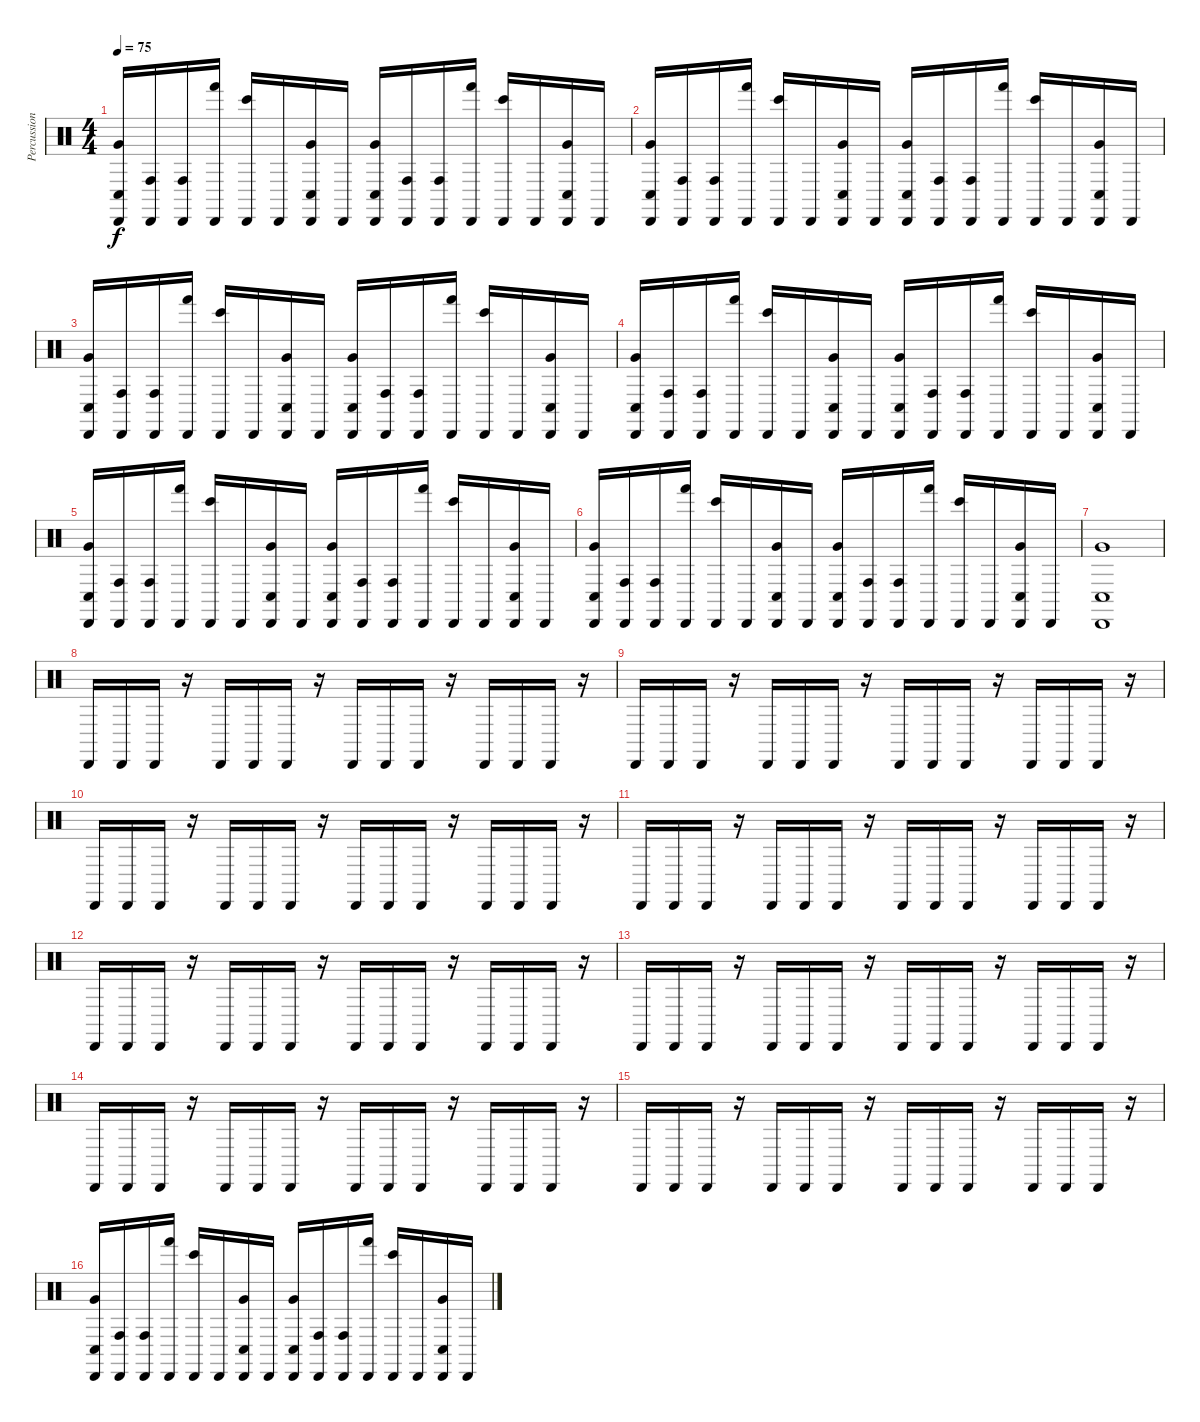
\track ("Percussions" "Percussion") {instrument percussion}
\staff {score}
\articulation defaults
\ts (4 4)
\tempo 75
\clef neutral
\ks c
("Conga low (hit)" "Very Low Tom (hit)" "Cabasa (hit)").16{dy f} ("Conga high (hit)" "Cabasa (hit)").16 ("Conga high (hit)" "Cabasa (hit)").16 ("Hand (hit)" "Cabasa (hit)").16 ("Bongo High (hit)" "Cabasa (hit)").16 "Cabasa (hit)".16 ("Conga low (hit)" "Very Low Tom (hit)" "Cabasa (hit)").16 "Cabasa (hit)".16 ("Conga low (hit)" "Very Low Tom (hit)" "Cabasa (hit)").16 ("Conga high (hit)" "Cabasa (hit)").16 ("Conga high (hit)" "Cabasa (hit)").16 ("Hand (hit)" "Cabasa (hit)").16 ("Bongo High (hit)" "Cabasa (hit)").16 "Cabasa (hit)".16 ("Conga low (hit)" "Very Low Tom (hit)" "Cabasa (hit)").16 "Cabasa (hit)".16 |
("Conga low (hit)" "Very Low Tom (hit)" "Cabasa (hit)").16 ("Conga high (hit)" "Cabasa (hit)").16 ("Conga high (hit)" "Cabasa (hit)").16 ("Hand (hit)" "Cabasa (hit)").16 ("Bongo High (hit)" "Cabasa (hit)").16 "Cabasa (hit)".16 ("Conga low (hit)" "Very Low Tom (hit)" "Cabasa (hit)").16 "Cabasa (hit)".16 ("Conga low (hit)" "Very Low Tom (hit)" "Cabasa (hit)").16 ("Conga high (hit)" "Cabasa (hit)").16 ("Conga high (hit)" "Cabasa (hit)").16 ("Hand (hit)" "Cabasa (hit)").16 ("Bongo High (hit)" "Cabasa (hit)").16 "Cabasa (hit)".16 ("Conga low (hit)" "Very Low Tom (hit)" "Cabasa (hit)").16 "Cabasa (hit)".16 |
("Conga low (hit)" "Very Low Tom (hit)" "Cabasa (hit)").16 ("Conga high (hit)" "Cabasa (hit)").16 ("Conga high (hit)" "Cabasa (hit)").16 ("Hand (hit)" "Cabasa (hit)").16 ("Bongo High (hit)" "Cabasa (hit)").16 "Cabasa (hit)".16 ("Conga low (hit)" "Very Low Tom (hit)" "Cabasa (hit)").16 "Cabasa (hit)".16 ("Conga low (hit)" "Very Low Tom (hit)" "Cabasa (hit)").16 ("Conga high (hit)" "Cabasa (hit)").16 ("Conga high (hit)" "Cabasa (hit)").16 ("Hand (hit)" "Cabasa (hit)").16 ("Bongo High (hit)" "Cabasa (hit)").16 "Cabasa (hit)".16 ("Conga low (hit)" "Very Low Tom (hit)" "Cabasa (hit)").16 "Cabasa (hit)".16 |
("Conga low (hit)" "Very Low Tom (hit)" "Cabasa (hit)").16 ("Conga high (hit)" "Cabasa (hit)").16 ("Conga high (hit)" "Cabasa (hit)").16 ("Hand (hit)" "Cabasa (hit)").16 ("Bongo High (hit)" "Cabasa (hit)").16 "Cabasa (hit)".16 ("Conga low (hit)" "Very Low Tom (hit)" "Cabasa (hit)").16 "Cabasa (hit)".16 ("Conga low (hit)" "Very Low Tom (hit)" "Cabasa (hit)").16 ("Conga high (hit)" "Cabasa (hit)").16 ("Conga high (hit)" "Cabasa (hit)").16 ("Hand (hit)" "Cabasa (hit)").16 ("Bongo High (hit)" "Cabasa (hit)").16 "Cabasa (hit)".16 ("Conga low (hit)" "Very Low Tom (hit)" "Cabasa (hit)").16 "Cabasa (hit)".16 |
("Conga low (hit)" "Very Low Tom (hit)" "Cabasa (hit)").16 ("Conga high (hit)" "Cabasa (hit)").16 ("Conga high (hit)" "Cabasa (hit)").16 ("Hand (hit)" "Cabasa (hit)").16 ("Bongo High (hit)" "Cabasa (hit)").16 "Cabasa (hit)".16 ("Conga low (hit)" "Very Low Tom (hit)" "Cabasa (hit)").16 "Cabasa (hit)".16 ("Conga low (hit)" "Very Low Tom (hit)" "Cabasa (hit)").16 ("Conga high (hit)" "Cabasa (hit)").16 ("Conga high (hit)" "Cabasa (hit)").16 ("Hand (hit)" "Cabasa (hit)").16 ("Bongo High (hit)" "Cabasa (hit)").16 "Cabasa (hit)".16 ("Conga low (hit)" "Very Low Tom (hit)" "Cabasa (hit)").16 "Cabasa (hit)".16 |
("Conga low (hit)" "Very Low Tom (hit)" "Cabasa (hit)").16 ("Conga high (hit)" "Cabasa (hit)").16 ("Conga high (hit)" "Cabasa (hit)").16 ("Hand (hit)" "Cabasa (hit)").16 ("Bongo High (hit)" "Cabasa (hit)").16 "Cabasa (hit)".16 ("Conga low (hit)" "Very Low Tom (hit)" "Cabasa (hit)").16 "Cabasa (hit)".16 ("Conga low (hit)" "Very Low Tom (hit)" "Cabasa (hit)").16 ("Conga high (hit)" "Cabasa (hit)").16 ("Conga high (hit)" "Cabasa (hit)").16 ("Hand (hit)" "Cabasa (hit)").16 ("Bongo High (hit)" "Cabasa (hit)").16 "Cabasa (hit)".16 ("Conga low (hit)" "Very Low Tom (hit)" "Cabasa (hit)").16 "Cabasa (hit)".16 |
("Conga low (hit)" "Very Low Tom (hit)" "Cabasa (hit)").1 |
"Cabasa (hit)".16 "Cabasa (hit)".16 "Cabasa (hit)".16 r.16 "Cabasa (hit)".16 "Cabasa (hit)".16 "Cabasa (hit)".16 r.16 "Cabasa (hit)".16 "Cabasa (hit)".16 "Cabasa (hit)".16 r.16 "Cabasa (hit)".16 "Cabasa (hit)".16 "Cabasa (hit)".16 r.16 |
"Cabasa (hit)".16 "Cabasa (hit)".16 "Cabasa (hit)".16 r.16 "Cabasa (hit)".16 "Cabasa (hit)".16 "Cabasa (hit)".16 r.16 "Cabasa (hit)".16 "Cabasa (hit)".16 "Cabasa (hit)".16 r.16 "Cabasa (hit)".16 "Cabasa (hit)".16 "Cabasa (hit)".16 r.16 |
"Cabasa (hit)".16 "Cabasa (hit)".16 "Cabasa (hit)".16 r.16 "Cabasa (hit)".16 "Cabasa (hit)".16 "Cabasa (hit)".16 r.16 "Cabasa (hit)".16 "Cabasa (hit)".16 "Cabasa (hit)".16 r.16 "Cabasa (hit)".16 "Cabasa (hit)".16 "Cabasa (hit)".16 r.16 |
"Cabasa (hit)".16 "Cabasa (hit)".16 "Cabasa (hit)".16 r.16 "Cabasa (hit)".16 "Cabasa (hit)".16 "Cabasa (hit)".16 r.16 "Cabasa (hit)".16 "Cabasa (hit)".16 "Cabasa (hit)".16 r.16 "Cabasa (hit)".16 "Cabasa (hit)".16 "Cabasa (hit)".16 r.16 |
"Cabasa (hit)".16 "Cabasa (hit)".16 "Cabasa (hit)".16 r.16 "Cabasa (hit)".16 "Cabasa (hit)".16 "Cabasa (hit)".16 r.16 "Cabasa (hit)".16 "Cabasa (hit)".16 "Cabasa (hit)".16 r.16 "Cabasa (hit)".16 "Cabasa (hit)".16 "Cabasa (hit)".16 r.16 |
"Cabasa (hit)".16 "Cabasa (hit)".16 "Cabasa (hit)".16 r.16 "Cabasa (hit)".16 "Cabasa (hit)".16 "Cabasa (hit)".16 r.16 "Cabasa (hit)".16 "Cabasa (hit)".16 "Cabasa (hit)".16 r.16 "Cabasa (hit)".16 "Cabasa (hit)".16 "Cabasa (hit)".16 r.16 |
"Cabasa (hit)".16 "Cabasa (hit)".16 "Cabasa (hit)".16 r.16 "Cabasa (hit)".16 "Cabasa (hit)".16 "Cabasa (hit)".16 r.16 "Cabasa (hit)".16 "Cabasa (hit)".16 "Cabasa (hit)".16 r.16 "Cabasa (hit)".16 "Cabasa (hit)".16 "Cabasa (hit)".16 r.16 |
"Cabasa (hit)".16 "Cabasa (hit)".16 "Cabasa (hit)".16 r.16 "Cabasa (hit)".16 "Cabasa (hit)".16 "Cabasa (hit)".16 r.16 "Cabasa (hit)".16 "Cabasa (hit)".16 "Cabasa (hit)".16 r.16 "Cabasa (hit)".16 "Cabasa (hit)".16 "Cabasa (hit)".16 r.16 |
("Conga low (hit)" "Very Low Tom (hit)" "Cabasa (hit)").16 ("Conga high (hit)" "Cabasa (hit)").16 ("Conga high (hit)" "Cabasa (hit)").16 ("Hand (hit)" "Cabasa (hit)").16 ("Bongo High (hit)" "Cabasa (hit)").16 "Cabasa (hit)".16 ("Conga low (hit)" "Very Low Tom (hit)" "Cabasa (hit)").16 "Cabasa (hit)".16 ("Conga low (hit)" "Very Low Tom (hit)" "Cabasa (hit)").16 ("Conga high (hit)" "Cabasa (hit)").16 ("Conga high (hit)" "Cabasa (hit)").16 ("Hand (hit)" "Cabasa (hit)").16 ("Bongo High (hit)" "Cabasa (hit)").16 "Cabasa (hit)".16 ("Conga low (hit)" "Very Low Tom (hit)" "Cabasa (hit)").16 "Cabasa (hit)".16
